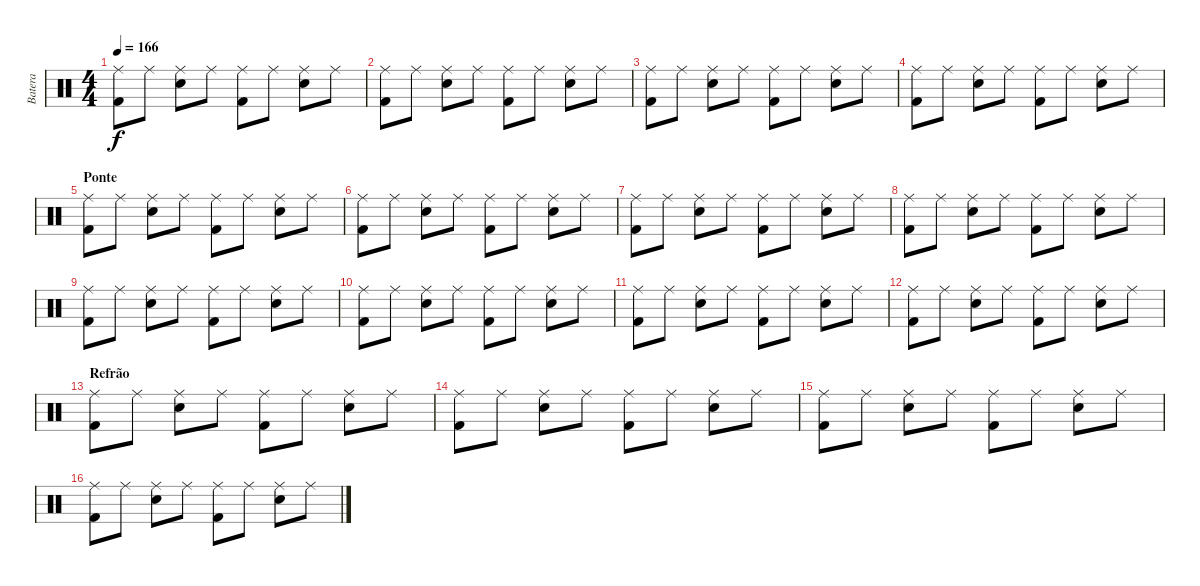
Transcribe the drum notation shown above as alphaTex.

\track ("Batera" "Batera") {instrument percussion}
\staff {score}
\articulation defaults
\ts (4 4)
\tempo 166
\clef neutral
\ks c
("Ride (middle)" "Kick (hit) 2").8{dy f} "Ride (middle)".8 ("Ride (middle)" "Snare (hit) 2").8 "Ride (middle)".8 ("Ride (middle)" "Kick (hit) 2").8 "Ride (middle)".8 ("Ride (middle)" "Snare (hit) 2").8 "Ride (middle)".8 |
("Ride (middle)" "Kick (hit) 2").8 "Ride (middle)".8 ("Ride (middle)" "Snare (hit) 2").8 "Ride (middle)".8 ("Ride (middle)" "Kick (hit) 2").8 "Ride (middle)".8 ("Ride (middle)" "Snare (hit) 2").8 "Ride (middle)".8 |
("Ride (middle)" "Kick (hit) 2").8 "Ride (middle)".8 ("Ride (middle)" "Snare (hit) 2").8 "Ride (middle)".8 ("Ride (middle)" "Kick (hit) 2").8 "Ride (middle)".8 ("Ride (middle)" "Snare (hit) 2").8 "Ride (middle)".8 |
("Ride (middle)" "Kick (hit) 2").8 "Ride (middle)".8 ("Ride (middle)" "Snare (hit) 2").8 "Ride (middle)".8 ("Ride (middle)" "Kick (hit) 2").8 "Ride (middle)".8 ("Ride (middle)" "Snare (hit) 2").8 "Ride (middle)".8 |
\section ("" "Ponte")
("Ride (middle)" "Kick (hit) 2").8 "Ride (middle)".8 ("Ride (middle)" "Snare (hit) 2").8 "Ride (middle)".8 ("Ride (middle)" "Kick (hit) 2").8 "Ride (middle)".8 ("Ride (middle)" "Snare (hit) 2").8 "Ride (middle)".8 |
("Ride (middle)" "Kick (hit) 2").8 "Ride (middle)".8 ("Ride (middle)" "Snare (hit) 2").8 "Ride (middle)".8 ("Ride (middle)" "Kick (hit) 2").8 "Ride (middle)".8 ("Ride (middle)" "Snare (hit) 2").8 "Ride (middle)".8 |
("Ride (middle)" "Kick (hit) 2").8 "Ride (middle)".8 ("Ride (middle)" "Snare (hit) 2").8 "Ride (middle)".8 ("Ride (middle)" "Kick (hit) 2").8 "Ride (middle)".8 ("Ride (middle)" "Snare (hit) 2").8 "Ride (middle)".8 |
("Ride (middle)" "Kick (hit) 2").8 "Ride (middle)".8 ("Ride (middle)" "Snare (hit) 2").8 "Ride (middle)".8 ("Ride (middle)" "Kick (hit) 2").8 "Ride (middle)".8 ("Ride (middle)" "Snare (hit) 2").8 "Ride (middle)".8 |
("Ride (middle)" "Kick (hit) 2").8 "Ride (middle)".8 ("Ride (middle)" "Snare (hit) 2").8 "Ride (middle)".8 ("Ride (middle)" "Kick (hit) 2").8 "Ride (middle)".8 ("Ride (middle)" "Snare (hit) 2").8 "Ride (middle)".8 |
("Ride (middle)" "Kick (hit) 2").8 "Ride (middle)".8 ("Ride (middle)" "Snare (hit) 2").8 "Ride (middle)".8 ("Ride (middle)" "Kick (hit) 2").8 "Ride (middle)".8 ("Ride (middle)" "Snare (hit) 2").8 "Ride (middle)".8 |
("Ride (middle)" "Kick (hit) 2").8 "Ride (middle)".8 ("Ride (middle)" "Snare (hit) 2").8 "Ride (middle)".8 ("Ride (middle)" "Kick (hit) 2").8 "Ride (middle)".8 ("Ride (middle)" "Snare (hit) 2").8 "Ride (middle)".8 |
("Ride (middle)" "Kick (hit) 2").8 "Ride (middle)".8 ("Ride (middle)" "Snare (hit) 2").8 "Ride (middle)".8 ("Ride (middle)" "Kick (hit) 2").8 "Ride (middle)".8 ("Ride (middle)" "Snare (hit) 2").8 "Ride (middle)".8 |
\section ("" "Refrão")
("Ride (middle)" "Kick (hit) 2").8 "Ride (middle)".8 ("Ride (middle)" "Snare (hit) 2").8 "Ride (middle)".8 ("Ride (middle)" "Kick (hit) 2").8 "Ride (middle)".8 ("Ride (middle)" "Snare (hit) 2").8 "Ride (middle)".8 |
("Ride (middle)" "Kick (hit) 2").8 "Ride (middle)".8 ("Ride (middle)" "Snare (hit) 2").8 "Ride (middle)".8 ("Ride (middle)" "Kick (hit) 2").8 "Ride (middle)".8 ("Ride (middle)" "Snare (hit) 2").8 "Ride (middle)".8 |
("Ride (middle)" "Kick (hit) 2").8 "Ride (middle)".8 ("Ride (middle)" "Snare (hit) 2").8 "Ride (middle)".8 ("Ride (middle)" "Kick (hit) 2").8 "Ride (middle)".8 ("Ride (middle)" "Snare (hit) 2").8 "Ride (middle)".8 |
("Ride (middle)" "Kick (hit) 2").8 "Ride (middle)".8 ("Ride (middle)" "Snare (hit) 2").8 "Ride (middle)".8 ("Ride (middle)" "Kick (hit) 2").8 "Ride (middle)".8 ("Ride (middle)" "Snare (hit) 2").8 "Ride (middle)".8
